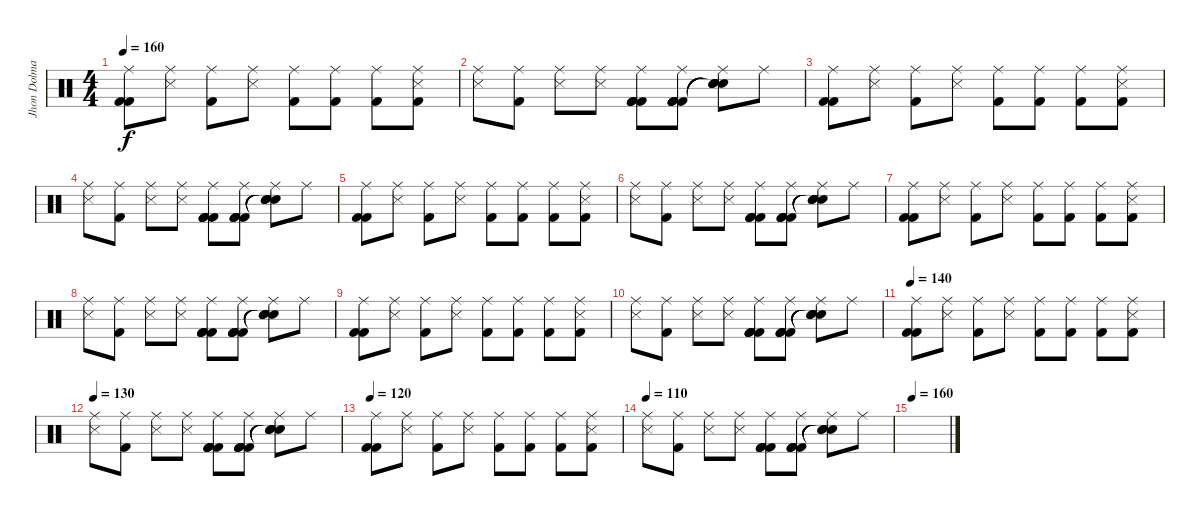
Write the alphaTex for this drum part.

\track ("Jhon Dolmayan(Drum)" "Jhon Dolma") {instrument percussion}
\staff {score}
\articulation defaults
\ts (4 4)
\tempo 160
\clef neutral
\ks c
("Ride (middle)" "Kick (hit) 2" "Kick (hit) 2").8{dy f} ("Ride (middle)" "Snare (side stick) 3").8 ("Ride (middle)" "Kick (hit) 2").8 ("Ride (middle)" "Snare (side stick) 3").8 ("Ride (middle)" "Kick (hit) 2").8 ("Ride (middle)" "Kick (hit) 2").8 ("Ride (middle)" "Kick (hit) 2").8 ("Ride (middle)" "Snare (side stick) 3" "Kick (hit) 2").8 |
("Ride (middle)" "Snare (side stick) 3").8 ("Ride (middle)" "Kick (hit) 2").8 ("Ride (middle)" "Snare (side stick) 3").8 ("Ride (middle)" "Snare (side stick) 3").8 ("Ride (middle)" "Kick (hit) 2" "Kick (hit) 2" "Kick (hit) 2" "Kick (hit) 2").8 ("Ride (middle)" "Kick (hit) 2" "Kick (hit) 2" "Kick (hit) 2" "Kick (hit) 2").8 ("Ride (middle)" "Snare (hit)"{t} "Snare (hit)"{t} "Snare (hit)"{t} "Snare (hit)"{t}).8 "Ride (middle)".8 |
("Ride (middle)" "Kick (hit) 2" "Kick (hit) 2").8 ("Ride (middle)" "Snare (side stick) 3").8 ("Ride (middle)" "Kick (hit) 2").8 ("Ride (middle)" "Snare (side stick) 3").8 ("Ride (middle)" "Kick (hit) 2").8 ("Ride (middle)" "Kick (hit) 2").8 ("Ride (middle)" "Kick (hit) 2").8 ("Ride (middle)" "Snare (side stick) 3" "Kick (hit) 2").8 |
("Ride (middle)" "Snare (side stick) 3").8 ("Ride (middle)" "Kick (hit) 2").8 ("Ride (middle)" "Snare (side stick) 3").8 ("Ride (middle)" "Snare (side stick) 3").8 ("Ride (middle)" "Kick (hit) 2" "Kick (hit) 2" "Kick (hit) 2" "Kick (hit) 2").8 ("Ride (middle)" "Kick (hit) 2" "Kick (hit) 2" "Kick (hit) 2" "Kick (hit) 2").8 ("Ride (middle)" "Snare (hit)"{t} "Snare (hit)"{t} "Snare (hit)"{t} "Snare (hit)"{t}).8 "Ride (middle)".8 |
("Ride (middle)" "Kick (hit) 2" "Kick (hit) 2").8 ("Ride (middle)" "Snare (side stick) 3").8 ("Ride (middle)" "Kick (hit) 2").8 ("Ride (middle)" "Snare (side stick) 3").8 ("Ride (middle)" "Kick (hit) 2").8 ("Ride (middle)" "Kick (hit) 2").8 ("Ride (middle)" "Kick (hit) 2").8 ("Ride (middle)" "Snare (side stick) 3" "Kick (hit) 2").8 |
("Ride (middle)" "Snare (side stick) 3").8 ("Ride (middle)" "Kick (hit) 2").8 ("Ride (middle)" "Snare (side stick) 3").8 ("Ride (middle)" "Snare (side stick) 3").8 ("Ride (middle)" "Kick (hit) 2" "Kick (hit) 2" "Kick (hit) 2" "Kick (hit) 2").8 ("Ride (middle)" "Kick (hit) 2" "Kick (hit) 2" "Kick (hit) 2" "Kick (hit) 2").8 ("Ride (middle)" "Snare (hit)"{t} "Snare (hit)"{t} "Snare (hit)"{t} "Snare (hit)"{t}).8 "Ride (middle)".8 |
("Ride (middle)" "Kick (hit) 2" "Kick (hit) 2").8 ("Ride (middle)" "Snare (side stick) 3").8 ("Ride (middle)" "Kick (hit) 2").8 ("Ride (middle)" "Snare (side stick) 3").8 ("Ride (middle)" "Kick (hit) 2").8 ("Ride (middle)" "Kick (hit) 2").8 ("Ride (middle)" "Kick (hit) 2").8 ("Ride (middle)" "Snare (side stick) 3" "Kick (hit) 2").8 |
("Ride (middle)" "Snare (side stick) 3").8 ("Ride (middle)" "Kick (hit) 2").8 ("Ride (middle)" "Snare (side stick) 3").8 ("Ride (middle)" "Snare (side stick) 3").8 ("Ride (middle)" "Kick (hit) 2" "Kick (hit) 2" "Kick (hit) 2" "Kick (hit) 2").8 ("Ride (middle)" "Kick (hit) 2" "Kick (hit) 2" "Kick (hit) 2" "Kick (hit) 2").8 ("Ride (middle)" "Snare (hit)"{t} "Snare (hit)"{t} "Snare (hit)"{t} "Snare (hit)"{t}).8 "Ride (middle)".8 |
("Ride (middle)" "Kick (hit) 2" "Kick (hit) 2").8 ("Ride (middle)" "Snare (side stick) 3").8 ("Ride (middle)" "Kick (hit) 2").8 ("Ride (middle)" "Snare (side stick) 3").8 ("Ride (middle)" "Kick (hit) 2").8 ("Ride (middle)" "Kick (hit) 2").8 ("Ride (middle)" "Kick (hit) 2").8 ("Ride (middle)" "Snare (side stick) 3" "Kick (hit) 2").8 |
("Ride (middle)" "Snare (side stick) 3").8{volume 11} ("Ride (middle)" "Kick (hit) 2").8 ("Ride (middle)" "Snare (side stick) 3").8 ("Ride (middle)" "Snare (side stick) 3").8 ("Ride (middle)" "Kick (hit) 2" "Kick (hit) 2" "Kick (hit) 2" "Kick (hit) 2").8 ("Ride (middle)" "Kick (hit) 2" "Kick (hit) 2" "Kick (hit) 2" "Kick (hit) 2").8 ("Ride (middle)" "Snare (hit)"{t} "Snare (hit)"{t} "Snare (hit)"{t} "Snare (hit)"{t}).8 "Ride (middle)".8 |
\tempo 140
("Ride (middle)" "Kick (hit) 2" "Kick (hit) 2").8{volume 10} ("Ride (middle)" "Snare (side stick) 3").8 ("Ride (middle)" "Kick (hit) 2").8 ("Ride (middle)" "Snare (side stick) 3").8 ("Ride (middle)" "Kick (hit) 2").8 ("Ride (middle)" "Kick (hit) 2").8 ("Ride (middle)" "Kick (hit) 2").8 ("Ride (middle)" "Snare (side stick) 3" "Kick (hit) 2").8 |
\tempo 130
("Ride (middle)" "Snare (side stick) 3").8{volume 9} ("Ride (middle)" "Kick (hit) 2").8 ("Ride (middle)" "Snare (side stick) 3").8 ("Ride (middle)" "Snare (side stick) 3").8 ("Ride (middle)" "Kick (hit) 2" "Kick (hit) 2" "Kick (hit) 2" "Kick (hit) 2").8 ("Ride (middle)" "Kick (hit) 2" "Kick (hit) 2" "Kick (hit) 2" "Kick (hit) 2").8 ("Ride (middle)" "Snare (hit)"{t} "Snare (hit)"{t} "Snare (hit)"{t} "Snare (hit)"{t}).8 "Ride (middle)".8 |
\tempo 120
("Ride (middle)" "Kick (hit) 2" "Kick (hit) 2").8{volume 8} ("Ride (middle)" "Snare (side stick) 3").8 ("Ride (middle)" "Kick (hit) 2").8 ("Ride (middle)" "Snare (side stick) 3").8 ("Ride (middle)" "Kick (hit) 2").8 ("Ride (middle)" "Kick (hit) 2").8 ("Ride (middle)" "Kick (hit) 2").8 ("Ride (middle)" "Snare (side stick) 3" "Kick (hit) 2").8 |
\tempo 110
("Ride (middle)" "Snare (side stick) 3").8{volume 7} ("Ride (middle)" "Kick (hit) 2").8 ("Ride (middle)" "Snare (side stick) 3").8 ("Ride (middle)" "Snare (side stick) 3").8 ("Ride (middle)" "Kick (hit) 2" "Kick (hit) 2" "Kick (hit) 2" "Kick (hit) 2").8 ("Ride (middle)" "Kick (hit) 2" "Kick (hit) 2" "Kick (hit) 2" "Kick (hit) 2").8 ("Ride (middle)" "Snare (hit)"{t} "Snare (hit)"{t} "Snare (hit)"{t} "Snare (hit)"{t}).8 "Ride (middle)".8 |
\tempo 160
